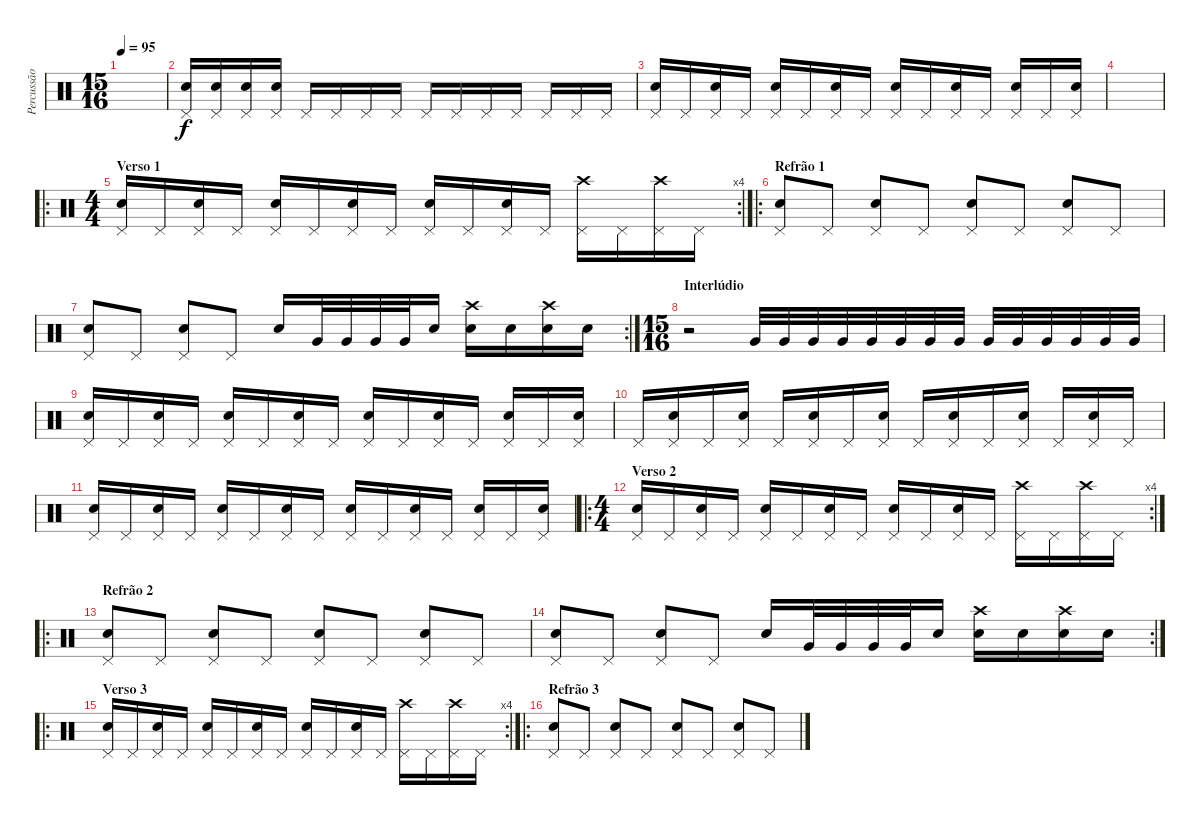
\track ("Percussão" "Percussão") {instrument percussion}
\staff {score}
\articulation defaults
\ts (15 16)
\tempo 95
\clef neutral
\ks c
|
("Snare (hit) 2" "Pedal Hi-Hat (hit)").16 ("Snare (hit) 2" "Pedal Hi-Hat (hit)").16 ("Snare (hit) 2" "Pedal Hi-Hat (hit)").16 ("Snare (hit) 2" "Pedal Hi-Hat (hit)").16 "Pedal Hi-Hat (hit)".16 "Pedal Hi-Hat (hit)".16 "Pedal Hi-Hat (hit)".16 "Pedal Hi-Hat (hit)".16 "Pedal Hi-Hat (hit)".16 "Pedal Hi-Hat (hit)".16 "Pedal Hi-Hat (hit)".16 "Pedal Hi-Hat (hit)".16 "Pedal Hi-Hat (hit)".16 "Pedal Hi-Hat (hit)".16 "Pedal Hi-Hat (hit)".16 |
("Snare (hit) 2" "Pedal Hi-Hat (hit)").16 "Pedal Hi-Hat (hit)".16 ("Snare (hit) 2" "Pedal Hi-Hat (hit)").16 "Pedal Hi-Hat (hit)".16 ("Snare (hit) 2" "Pedal Hi-Hat (hit)").16 "Pedal Hi-Hat (hit)".16 ("Snare (hit) 2" "Pedal Hi-Hat (hit)").16 "Pedal Hi-Hat (hit)".16 ("Snare (hit) 2" "Pedal Hi-Hat (hit)").16 "Pedal Hi-Hat (hit)".16 ("Snare (hit) 2" "Pedal Hi-Hat (hit)").16 "Pedal Hi-Hat (hit)".16 ("Snare (hit) 2" "Pedal Hi-Hat (hit)").16 "Pedal Hi-Hat (hit)".16 ("Snare (hit) 2" "Pedal Hi-Hat (hit)").16 |
|
\ro
\rc 4
\ts (4 4)
\section ("" "Verso 1")
("Pedal Hi-Hat (hit)" "Snare (hit) 2").16 "Pedal Hi-Hat (hit)".16 ("Pedal Hi-Hat (hit)" "Snare (hit) 2").16 "Pedal Hi-Hat (hit)".16 ("Pedal Hi-Hat (hit)" "Snare (hit) 2").16 "Pedal Hi-Hat (hit)".16 ("Pedal Hi-Hat (hit)" "Snare (hit) 2").16 "Pedal Hi-Hat (hit)".16 ("Pedal Hi-Hat (hit)" "Snare (hit) 2").16 "Pedal Hi-Hat (hit)".16 ("Pedal Hi-Hat (hit)" "Snare (hit) 2").16 "Pedal Hi-Hat (hit)".16 ("Pedal Hi-Hat (hit)" "Crash high (hit)").16 "Pedal Hi-Hat (hit)".16 ("Pedal Hi-Hat (hit)" "Crash high (hit)").16 "Pedal Hi-Hat (hit)".16 |
\ro
\section ("" "Refrão 1")
("Pedal Hi-Hat (hit)" "Snare (hit) 2").8 "Pedal Hi-Hat (hit)".8 ("Pedal Hi-Hat (hit)" "Snare (hit) 2").8 "Pedal Hi-Hat (hit)".8 ("Pedal Hi-Hat (hit)" "Snare (hit) 2").8 "Pedal Hi-Hat (hit)".8 ("Pedal Hi-Hat (hit)" "Snare (hit) 2").8 "Pedal Hi-Hat (hit)".8 |
\rc 2
("Pedal Hi-Hat (hit)" "Snare (hit) 2").8 "Pedal Hi-Hat (hit)".8 ("Pedal Hi-Hat (hit)" "Snare (hit) 2").8 "Pedal Hi-Hat (hit)".8 "Snare (hit) 2".16 "Very Low Tom (hit)".32 "Very Low Tom (hit)".32 "Very Low Tom (hit)".32 "Very Low Tom (hit)".32 "Snare (hit) 2".16 ("Crash high (hit)" "Snare (hit) 2").16 "Snare (hit) 2".16 ("Crash high (hit)" "Snare (hit) 2").16 "Snare (hit) 2".16 |
\ts (15 16)
\section ("" "Interlúdio")
r.2 "Very Low Tom (hit)".32 "Very Low Tom (hit)".32 "Very Low Tom (hit)".32 "Very Low Tom (hit)".32 "Very Low Tom (hit)".32 "Very Low Tom (hit)".32 "Very Low Tom (hit)".32 "Very Low Tom (hit)".32 "Very Low Tom (hit)".32 "Very Low Tom (hit)".32 "Very Low Tom (hit)".32 "Very Low Tom (hit)".32 "Very Low Tom (hit)".32 "Very Low Tom (hit)".32 |
("Snare (hit) 2" "Pedal Hi-Hat (hit)").16 "Pedal Hi-Hat (hit)".16 ("Snare (hit) 2" "Pedal Hi-Hat (hit)").16 "Pedal Hi-Hat (hit)".16 ("Snare (hit) 2" "Pedal Hi-Hat (hit)").16 "Pedal Hi-Hat (hit)".16 ("Snare (hit) 2" "Pedal Hi-Hat (hit)").16 "Pedal Hi-Hat (hit)".16 ("Snare (hit) 2" "Pedal Hi-Hat (hit)").16 "Pedal Hi-Hat (hit)".16 ("Snare (hit) 2" "Pedal Hi-Hat (hit)").16 "Pedal Hi-Hat (hit)".16 ("Snare (hit) 2" "Pedal Hi-Hat (hit)").16 "Pedal Hi-Hat (hit)".16 ("Snare (hit) 2" "Pedal Hi-Hat (hit)").16 |
"Pedal Hi-Hat (hit)".16 ("Snare (hit) 2" "Pedal Hi-Hat (hit)").16 "Pedal Hi-Hat (hit)".16 ("Snare (hit) 2" "Pedal Hi-Hat (hit)").16 "Pedal Hi-Hat (hit)".16 ("Snare (hit) 2" "Pedal Hi-Hat (hit)").16 "Pedal Hi-Hat (hit)".16 ("Snare (hit) 2" "Pedal Hi-Hat (hit)").16 "Pedal Hi-Hat (hit)".16 ("Snare (hit) 2" "Pedal Hi-Hat (hit)").16 "Pedal Hi-Hat (hit)".16 ("Snare (hit) 2" "Pedal Hi-Hat (hit)").16 "Pedal Hi-Hat (hit)".16 ("Snare (hit) 2" "Pedal Hi-Hat (hit)").16 "Pedal Hi-Hat (hit)".16 |
("Snare (hit) 2" "Pedal Hi-Hat (hit)").16 "Pedal Hi-Hat (hit)".16 ("Snare (hit) 2" "Pedal Hi-Hat (hit)").16 "Pedal Hi-Hat (hit)".16 ("Snare (hit) 2" "Pedal Hi-Hat (hit)").16 "Pedal Hi-Hat (hit)".16 ("Snare (hit) 2" "Pedal Hi-Hat (hit)").16 "Pedal Hi-Hat (hit)".16 ("Snare (hit) 2" "Pedal Hi-Hat (hit)").16 "Pedal Hi-Hat (hit)".16 ("Snare (hit) 2" "Pedal Hi-Hat (hit)").16 "Pedal Hi-Hat (hit)".16 ("Snare (hit) 2" "Pedal Hi-Hat (hit)").16 "Pedal Hi-Hat (hit)".16 ("Snare (hit) 2" "Pedal Hi-Hat (hit)").16 |
\ro
\rc 4
\ts (4 4)
\section ("" "Verso 2")
("Pedal Hi-Hat (hit)" "Snare (hit) 2").16 "Pedal Hi-Hat (hit)".16 ("Pedal Hi-Hat (hit)" "Snare (hit) 2").16 "Pedal Hi-Hat (hit)".16 ("Pedal Hi-Hat (hit)" "Snare (hit) 2").16 "Pedal Hi-Hat (hit)".16 ("Pedal Hi-Hat (hit)" "Snare (hit) 2").16 "Pedal Hi-Hat (hit)".16 ("Pedal Hi-Hat (hit)" "Snare (hit) 2").16 "Pedal Hi-Hat (hit)".16 ("Pedal Hi-Hat (hit)" "Snare (hit) 2").16 "Pedal Hi-Hat (hit)".16 ("Pedal Hi-Hat (hit)" "Crash high (hit)").16 "Pedal Hi-Hat (hit)".16 ("Pedal Hi-Hat (hit)" "Crash high (hit)").16 "Pedal Hi-Hat (hit)".16 |
\ro
\section ("" "Refrão 2")
("Pedal Hi-Hat (hit)" "Snare (hit) 2").8 "Pedal Hi-Hat (hit)".8 ("Pedal Hi-Hat (hit)" "Snare (hit) 2").8 "Pedal Hi-Hat (hit)".8 ("Pedal Hi-Hat (hit)" "Snare (hit) 2").8 "Pedal Hi-Hat (hit)".8 ("Pedal Hi-Hat (hit)" "Snare (hit) 2").8 "Pedal Hi-Hat (hit)".8 |
\rc 2
("Pedal Hi-Hat (hit)" "Snare (hit) 2").8 "Pedal Hi-Hat (hit)".8 ("Pedal Hi-Hat (hit)" "Snare (hit) 2").8 "Pedal Hi-Hat (hit)".8 "Snare (hit) 2".16 "Very Low Tom (hit)".32 "Very Low Tom (hit)".32 "Very Low Tom (hit)".32 "Very Low Tom (hit)".32 "Snare (hit) 2".16 ("Crash high (hit)" "Snare (hit) 2").16 "Snare (hit) 2".16 ("Crash high (hit)" "Snare (hit) 2").16 "Snare (hit) 2".16 |
\ro
\rc 4
\section ("" "Verso 3")
("Pedal Hi-Hat (hit)" "Snare (hit) 2").16 "Pedal Hi-Hat (hit)".16 ("Pedal Hi-Hat (hit)" "Snare (hit) 2").16 "Pedal Hi-Hat (hit)".16 ("Pedal Hi-Hat (hit)" "Snare (hit) 2").16 "Pedal Hi-Hat (hit)".16 ("Pedal Hi-Hat (hit)" "Snare (hit) 2").16 "Pedal Hi-Hat (hit)".16 ("Pedal Hi-Hat (hit)" "Snare (hit) 2").16 "Pedal Hi-Hat (hit)".16 ("Pedal Hi-Hat (hit)" "Snare (hit) 2").16 "Pedal Hi-Hat (hit)".16 ("Pedal Hi-Hat (hit)" "Crash high (hit)").16 "Pedal Hi-Hat (hit)".16 ("Pedal Hi-Hat (hit)" "Crash high (hit)").16 "Pedal Hi-Hat (hit)".16 |
\ro
\section ("" "Refrão 3")
("Pedal Hi-Hat (hit)" "Snare (hit) 2").8 "Pedal Hi-Hat (hit)".8 ("Pedal Hi-Hat (hit)" "Snare (hit) 2").8 "Pedal Hi-Hat (hit)".8 ("Pedal Hi-Hat (hit)" "Snare (hit) 2").8 "Pedal Hi-Hat (hit)".8 ("Pedal Hi-Hat (hit)" "Snare (hit) 2").8 "Pedal Hi-Hat (hit)".8
